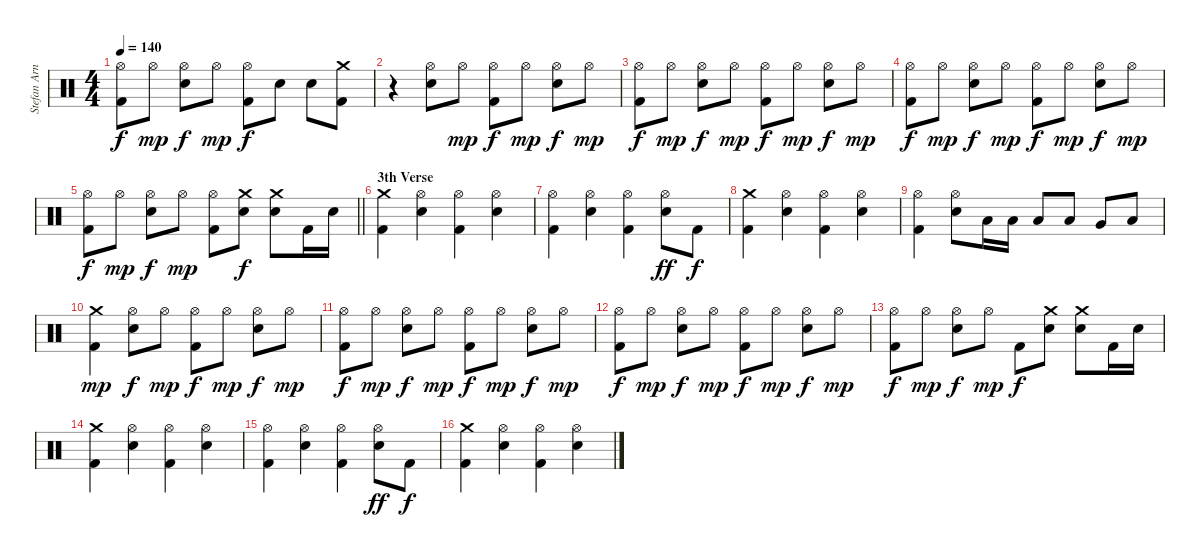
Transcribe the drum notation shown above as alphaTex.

\track ("Stefan Arnold" "Stefan Arn") {instrument percussion}
\staff {score}
\articulation defaults
\ts (4 4)
\tempo 140
\clef neutral
\ks c
("Hi-Hat (open)" "Kick (hit) 2").8{dy f} "Hi-Hat (open)".8{dy mp} ("Hi-Hat (open)" "Electric Snare (hit)").8{dy f} "Hi-Hat (open)".8{dy mp} ("Hi-Hat (open)" "Kick (hit) 2").8{dy f} "Electric Snare (hit)".8 "Electric Snare (hit)".8 ("Crash medium (hit)" "Kick (hit) 2").8 |
r.4 ("Hi-Hat (open)" "Electric Snare (hit)").8 "Hi-Hat (open)".8{dy mp} ("Hi-Hat (open)" "Kick (hit) 2").8{dy f} "Hi-Hat (open)".8{dy mp} ("Hi-Hat (open)" "Electric Snare (hit)").8{dy f} "Hi-Hat (open)".8{dy mp} |
("Hi-Hat (open)" "Kick (hit) 2").8{dy f} "Hi-Hat (open)".8{dy mp} ("Hi-Hat (open)" "Electric Snare (hit)").8{dy f} "Hi-Hat (open)".8{dy mp} ("Hi-Hat (open)" "Kick (hit) 2").8{dy f} "Hi-Hat (open)".8{dy mp} ("Hi-Hat (open)" "Electric Snare (hit)").8{dy f} "Hi-Hat (open)".8{dy mp} |
("Hi-Hat (open)" "Kick (hit) 2").8{dy f} "Hi-Hat (open)".8{dy mp} ("Hi-Hat (open)" "Electric Snare (hit)").8{dy f} "Hi-Hat (open)".8{dy mp} ("Hi-Hat (open)" "Kick (hit) 2").8{dy f} "Hi-Hat (open)".8{dy mp} ("Hi-Hat (open)" "Electric Snare (hit)").8{dy f} "Hi-Hat (open)".8{dy mp} |
\barLineRight lightlight
("Hi-Hat (open)" "Kick (hit) 2").8{dy f} "Hi-Hat (open)".8{dy mp} ("Hi-Hat (open)" "Electric Snare (hit)").8{dy f} "Hi-Hat (open)".8{dy mp} ("Hi-Hat (open)" "Kick (hit) 2").8 ("Crash medium (hit)" "Electric Snare (hit)").8{dy f} ("Crash medium (hit)" "Electric Snare (hit)").8 "Kick (hit) 2".16 "Electric Snare (hit)".16 |
\section ("" "3th Verse")
("Crash medium (hit)" "Kick (hit) 2").4 ("Hi-Hat (open)" "Electric Snare (hit)").4 ("Hi-Hat (open)" "Kick (hit) 2").4 ("Hi-Hat (open)" "Electric Snare (hit)").4 |
("Hi-Hat (open)" "Kick (hit) 2").4 ("Hi-Hat (open)" "Electric Snare (hit)").4 ("Hi-Hat (open)" "Kick (hit) 2").4 ("Hi-Hat (open)" "Electric Snare (hit)").8{dy ff} "Kick (hit) 2".8{dy f} |
("Crash medium (hit)" "Kick (hit) 2").4 ("Hi-Hat (open)" "Electric Snare (hit)").4 ("Hi-Hat (open)" "Kick (hit) 2").4 ("Hi-Hat (open)" "Electric Snare (hit)").4 |
("Hi-Hat (open)" "Kick (hit) 2").4 ("Hi-Hat (open)" "Electric Snare (hit)").8 "Low Tom (hit)".16 "Low Tom (hit)".16 "Low Tom (hit)".8 "Low Tom (hit)".8 "Very Low Tom (hit)".8 "Low Floor Tom (hit)".8 |
("Crash medium (hit)" "Kick (hit) 2").4{dy mp} ("Hi-Hat (open)" "Electric Snare (hit)").8{dy f} "Hi-Hat (open)".8{dy mp} ("Hi-Hat (open)" "Kick (hit) 2").8{dy f} "Hi-Hat (open)".8{dy mp} ("Hi-Hat (open)" "Electric Snare (hit)").8{dy f} "Hi-Hat (open)".8{dy mp} |
("Hi-Hat (open)" "Kick (hit) 2").8{dy f} "Hi-Hat (open)".8{dy mp} ("Hi-Hat (open)" "Electric Snare (hit)").8{dy f} "Hi-Hat (open)".8{dy mp} ("Hi-Hat (open)" "Kick (hit) 2").8{dy f} "Hi-Hat (open)".8{dy mp} ("Hi-Hat (open)" "Electric Snare (hit)").8{dy f} "Hi-Hat (open)".8{dy mp} |
("Hi-Hat (open)" "Kick (hit) 2").8{dy f} "Hi-Hat (open)".8{dy mp} ("Hi-Hat (open)" "Electric Snare (hit)").8{dy f} "Hi-Hat (open)".8{dy mp} ("Hi-Hat (open)" "Kick (hit) 2").8{dy f} "Hi-Hat (open)".8{dy mp} ("Hi-Hat (open)" "Electric Snare (hit)").8{dy f} "Hi-Hat (open)".8{dy mp} |
("Hi-Hat (open)" "Kick (hit) 2").8{dy f} "Hi-Hat (open)".8{dy mp} ("Hi-Hat (open)" "Electric Snare (hit)").8{dy f} "Hi-Hat (open)".8{dy mp} "Kick (hit) 2".8{dy f} ("Crash medium (hit)" "Electric Snare (hit)").8 ("Crash medium (hit)" "Electric Snare (hit)").8 "Kick (hit) 2".16 "Electric Snare (hit)".16 |
("Crash medium (hit)" "Kick (hit) 2").4 ("Hi-Hat (open)" "Electric Snare (hit)").4 ("Hi-Hat (open)" "Kick (hit) 2").4 ("Hi-Hat (open)" "Electric Snare (hit)").4 |
("Hi-Hat (open)" "Kick (hit) 2").4 ("Hi-Hat (open)" "Electric Snare (hit)").4 ("Hi-Hat (open)" "Kick (hit) 2").4 ("Hi-Hat (open)" "Electric Snare (hit)").8{dy ff} "Kick (hit) 2".8{dy f} |
("Crash medium (hit)" "Kick (hit) 2").4 ("Hi-Hat (open)" "Electric Snare (hit)").4 ("Hi-Hat (open)" "Kick (hit) 2").4 ("Hi-Hat (open)" "Electric Snare (hit)").4
